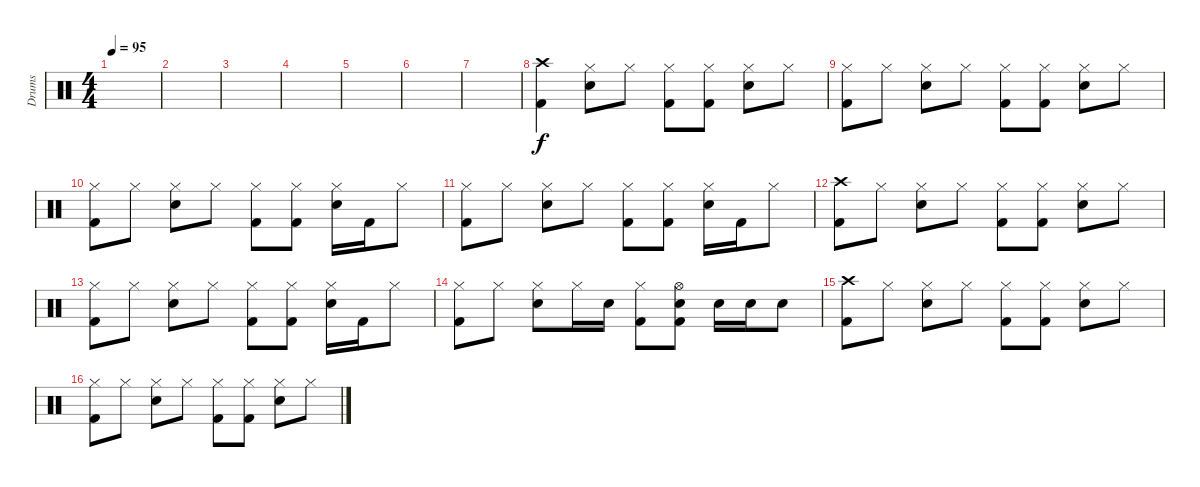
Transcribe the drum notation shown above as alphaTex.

\track ("Drums" "Drums") {instrument percussion}
\staff {score}
\articulation defaults
\ts (4 4)
\tempo 95
\clef neutral
\ks c
|
|
|
|
|
|
|
("Crash high (hit)" "Kick (hit) 2").4 ("Hi-Hat (closed)" "Snare (hit) 2").8 "Hi-Hat (closed)".8 ("Hi-Hat (closed)" "Kick (hit) 2").8 ("Hi-Hat (closed)" "Kick (hit) 2").8 ("Hi-Hat (closed)" "Snare (hit) 2").8 "Hi-Hat (closed)".8 |
("Kick (hit) 2" "Hi-Hat (closed)").8 "Hi-Hat (closed)".8 ("Snare (hit) 2" "Hi-Hat (closed)").8 "Hi-Hat (closed)".8 ("Kick (hit) 2" "Hi-Hat (closed)").8 ("Kick (hit) 2" "Hi-Hat (closed)").8 ("Snare (hit) 2" "Hi-Hat (closed)").8 "Hi-Hat (closed)".8 |
("Kick (hit) 2" "Hi-Hat (closed)").8 "Hi-Hat (closed)".8 ("Snare (hit) 2" "Hi-Hat (closed)").8 "Hi-Hat (closed)".8 ("Kick (hit) 2" "Hi-Hat (closed)").8 ("Kick (hit) 2" "Hi-Hat (closed)").8 ("Snare (hit) 2" "Hi-Hat (closed)").16 "Kick (hit) 2".16 "Hi-Hat (closed)".8 |
("Kick (hit) 2" "Hi-Hat (closed)").8 "Hi-Hat (closed)".8 ("Snare (hit) 2" "Hi-Hat (closed)").8 "Hi-Hat (closed)".8 ("Kick (hit) 2" "Hi-Hat (closed)").8 ("Kick (hit) 2" "Hi-Hat (closed)").8 ("Snare (hit) 2" "Hi-Hat (closed)").16 "Kick (hit) 2".16 "Hi-Hat (closed)".8 |
("Crash high (hit)" "Kick (hit) 2").8 "Hi-Hat (closed)".8 ("Hi-Hat (closed)" "Snare (hit) 2").8 "Hi-Hat (closed)".8 ("Hi-Hat (closed)" "Kick (hit) 2").8 ("Hi-Hat (closed)" "Kick (hit) 2").8 ("Hi-Hat (closed)" "Snare (hit) 2").8 "Hi-Hat (closed)".8 |
("Kick (hit) 2" "Hi-Hat (closed)").8 "Hi-Hat (closed)".8 ("Snare (hit) 2" "Hi-Hat (closed)").8 "Hi-Hat (closed)".8 ("Kick (hit) 2" "Hi-Hat (closed)").8 ("Kick (hit) 2" "Hi-Hat (closed)").8 ("Snare (hit) 2" "Hi-Hat (closed)").16 "Kick (hit) 2".16 "Hi-Hat (closed)".8 |
("Kick (hit) 2" "Hi-Hat (closed)").8 "Hi-Hat (closed)".8 ("Snare (hit) 2" "Hi-Hat (closed)").8 "Hi-Hat (closed)".16 "Snare (hit) 2".16 ("Hi-Hat (closed)" "Kick (hit) 2").8 ("Snare (hit) 2" "Kick (hit) 2" "Hi-Hat (open)").8 "Snare (hit) 2".16 "Snare (hit) 2".16 "Snare (hit) 2".8 |
("Crash high (hit)" "Kick (hit) 2").8 "Hi-Hat (closed)".8 ("Snare (hit) 2" "Hi-Hat (closed)").8 "Hi-Hat (closed)".8 ("Kick (hit) 2" "Hi-Hat (closed)").8 ("Kick (hit) 2" "Hi-Hat (closed)").8 ("Snare (hit) 2" "Hi-Hat (closed)").8 "Hi-Hat (closed)".8 |
("Kick (hit) 2" "Hi-Hat (closed)").8 "Hi-Hat (closed)".8 ("Snare (hit) 2" "Hi-Hat (closed)").8 "Hi-Hat (closed)".8 ("Kick (hit) 2" "Hi-Hat (closed)").8 ("Kick (hit) 2" "Hi-Hat (closed)").8 ("Snare (hit) 2" "Hi-Hat (closed)").8 "Hi-Hat (closed)".8
